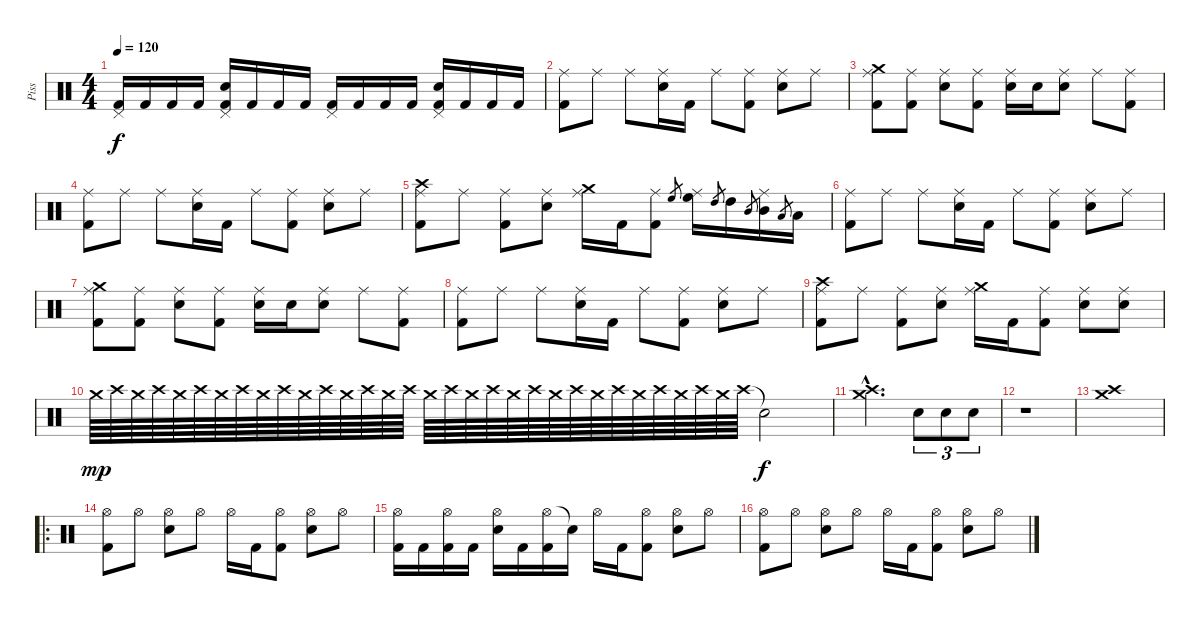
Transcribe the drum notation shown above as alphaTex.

\track ("Piss" "Piss") {instrument percussion}
\staff {score}
\articulation defaults
\ts (4 4)
\tempo 120
\clef neutral
\ks c
("Pedal Hi-Hat (hit)" "Kick (hit) 2").16{dy f} "Kick (hit) 2".16 "Kick (hit) 2".16 "Kick (hit) 2".16 ("Pedal Hi-Hat (hit)" "Electric Snare (hit)" "Kick (hit) 2").16 "Kick (hit) 2".16 "Kick (hit) 2".16 "Kick (hit) 2".16 ("Pedal Hi-Hat (hit)" "Kick (hit) 2").16 "Kick (hit) 2".16 "Kick (hit) 2".16 "Kick (hit) 2".16 ("Pedal Hi-Hat (hit)" "Electric Snare (hit)" "Kick (hit) 2").16 "Kick (hit) 2".16 "Kick (hit) 2".16 "Kick (hit) 2".16 |
("Ride (middle)" "Kick (hit) 2").8 "Ride (middle)".8 "Ride (middle)".8 ("Ride (middle)" "Electric Snare (hit)").16 "Kick (hit) 2".16 "Ride (middle)".8 ("Ride (middle)" "Kick (hit) 2").8 ("Ride (middle)" "Electric Snare (hit)").8 "Ride (middle)".8 |
("Crash medium (hit)" "Ride (middle)" "Kick (hit) 2").8 ("Ride (middle)" "Kick (hit) 2").8 ("Ride (middle)" "Electric Snare (hit)").8 ("Ride (middle)" "Kick (hit) 2").8 ("Ride (middle)" "Electric Snare (hit)").16 "Electric Snare (hit)".16 ("Ride (middle)" "Electric Snare (hit)").8 "Ride (middle)".8 ("Ride (middle)" "Kick (hit) 2").8 |
("Ride (middle)" "Kick (hit) 2").8 "Ride (middle)".8 "Ride (middle)".8 ("Ride (middle)" "Electric Snare (hit)").16 "Kick (hit) 2".16 "Ride (middle)".8 ("Ride (middle)" "Kick (hit) 2").8 ("Ride (middle)" "Electric Snare (hit)").8 "Ride (middle)".8 |
("Crash high (hit)" "Ride (middle)" "Kick (hit) 2").8 "Ride (middle)".8 ("Ride (middle)" "Kick (hit) 2").8 ("Ride (middle)" "Electric Snare (hit)").8 ("Crash medium (hit)" "Ride (middle)").16 "Kick (hit) 2".16 ("Ride (middle)" "Kick (hit) 2").8 "High Floor Tom (hit)".8{gr} ("Ride (middle)" "High Floor Tom (hit)").16 "High Tom (hit)".8{gr} "High Tom (hit)".16 "Mid Tom (hit)".8{gr} ("Ride (middle)" "Mid Tom (hit)").16 "Low Tom (hit)".8{gr} "Low Tom (hit)".16 |
("Ride (middle)" "Kick (hit) 2").8 "Ride (middle)".8 "Ride (middle)".8 ("Ride (middle)" "Electric Snare (hit)").16 "Kick (hit) 2".16 "Ride (middle)".8 ("Ride (middle)" "Kick (hit) 2").8 ("Ride (middle)" "Electric Snare (hit)").8 "Ride (middle)".8 |
("Crash medium (hit)" "Ride (middle)" "Kick (hit) 2").8 ("Ride (middle)" "Kick (hit) 2").8 ("Ride (middle)" "Electric Snare (hit)").8 ("Ride (middle)" "Kick (hit) 2").8 ("Ride (middle)" "Electric Snare (hit)").16 "Electric Snare (hit)".16 ("Ride (middle)" "Electric Snare (hit)").8 "Ride (middle)".8 ("Ride (middle)" "Kick (hit) 2").8 |
("Ride (middle)" "Kick (hit) 2").8 "Ride (middle)".8 "Ride (middle)".8 ("Ride (middle)" "Electric Snare (hit)").16 "Kick (hit) 2".16 "Ride (middle)".8 ("Ride (middle)" "Kick (hit) 2").8 ("Ride (middle)" "Electric Snare (hit)").8 "Ride (middle)".8 |
("Crash high (hit)" "Ride (middle)" "Kick (hit) 2").8 "Ride (middle)".8 ("Ride (middle)" "Kick (hit) 2").8 ("Ride (middle)" "Electric Snare (hit)").8 ("Crash medium (hit)" "Ride (middle)").16 "Kick (hit) 2".16 ("Ride (middle)" "Kick (hit) 2").8 ("Ride (middle)" "Electric Snare (hit)").8 ("Ride (middle)" "Electric Snare (hit)").8 |
"Crash medium (hit)".64{dy mp} "Crash high (hit)".64 "Crash medium (hit)".64 "Crash high (hit)".64 "Crash medium (hit)".64 "Crash high (hit)".64 "Crash medium (hit)".64 "Crash high (hit)".64 "Crash medium (hit)".64 "Crash high (hit)".64 "Crash medium (hit)".64 "Crash high (hit)".64 "Crash medium (hit)".64 "Crash high (hit)".64 "Crash medium (hit)".64 "Crash high (hit)".64 "Crash medium (hit)".64 "Crash high (hit)".64 "Crash medium (hit)".64 "Crash high (hit)".64 "Crash medium (hit)".64 "Crash high (hit)".64 "Crash medium (hit)".64 "Crash high (hit)".64 "Crash medium (hit)".64 "Crash high (hit)".64 "Crash medium (hit)".64 "Crash high (hit)".64 "Crash medium (hit)".64 "Crash high (hit)".64 "Crash medium (hit)".64 "Crash high (hit)".64 "Snare (hit)"{t}.2{dy f} |
("Crash medium (hit)"{hac} "Crash high (hit)"{hac}).2{d} "Electric Snare (hit)".8{tu (3 2)} "Electric Snare (hit)".8{tu (3 2)} "Electric Snare (hit)".8{tu (3 2)} |
r.1 |
("Crash medium (hit)" "Crash high (hit)").1 |
\ro
("Hi-Hat (open)" "Kick (hit) 2").8 "Hi-Hat (open)".8 ("Hi-Hat (open)" "Electric Snare (hit)").8 "Hi-Hat (open)".8 "Hi-Hat (open)".16 "Kick (hit) 2".16 ("Hi-Hat (open)" "Kick (hit) 2").8 ("Hi-Hat (open)" "Electric Snare (hit)").8 "Hi-Hat (open)".8 |
("Hi-Hat (open)" "Kick (hit) 2").16 "Kick (hit) 2".16 ("Hi-Hat (open)" "Kick (hit) 2").16 "Kick (hit) 2".16 ("Hi-Hat (open)" "Electric Snare (hit)").16 "Kick (hit) 2".16 ("Hi-Hat (open)" "Kick (hit) 2").16 "Snare (hit)"{t}.16 "Hi-Hat (open)".16 "Kick (hit) 2".16 ("Hi-Hat (open)" "Kick (hit) 2").8 ("Hi-Hat (open)" "Electric Snare (hit)").8 "Hi-Hat (open)".8 |
("Hi-Hat (open)" "Kick (hit) 2").8 "Hi-Hat (open)".8 ("Hi-Hat (open)" "Electric Snare (hit)").8 "Hi-Hat (open)".8 "Hi-Hat (open)".16 "Kick (hit) 2".16 ("Hi-Hat (open)" "Kick (hit) 2").8 ("Hi-Hat (open)" "Electric Snare (hit)").8 "Hi-Hat (open)".8
